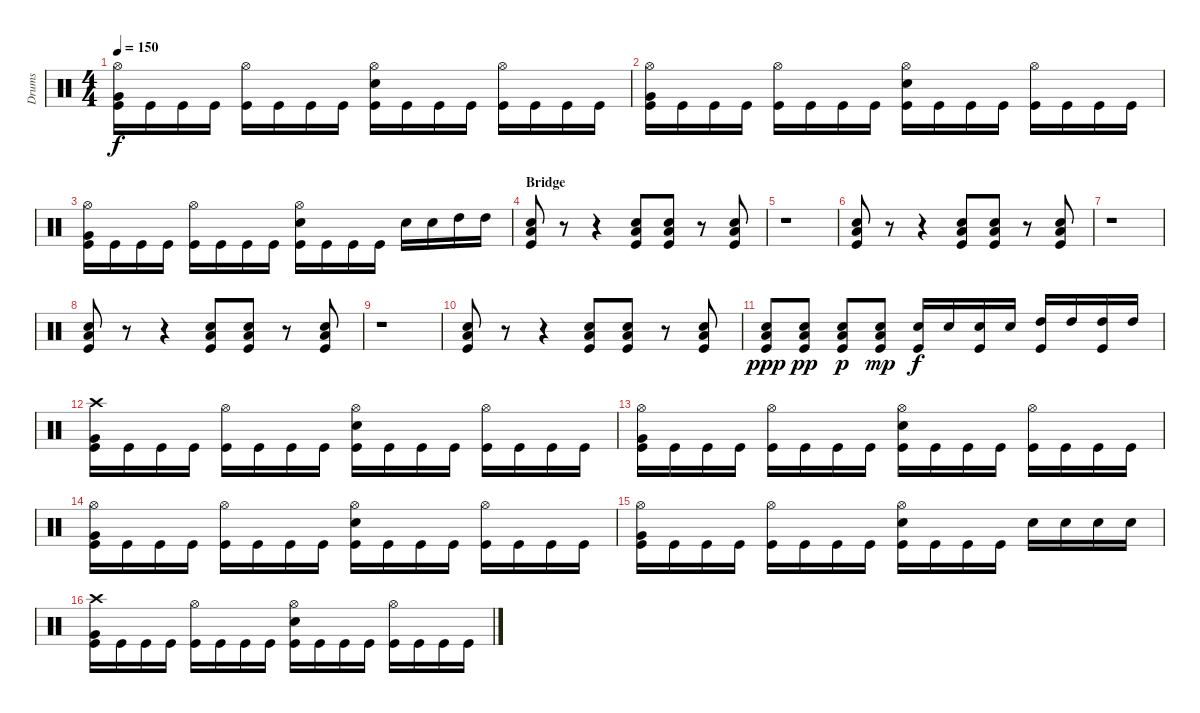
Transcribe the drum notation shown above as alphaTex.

\track ("Drums" "Drums") {instrument percussion}
\staff {score}
\articulation defaults
\ts (4 4)
\tempo 150
\clef neutral
\ks c
("Hi-Hat (open)" "Very Low Tom (hit)" "Kick (hit)").16{dy f} "Kick (hit)".16 "Kick (hit)".16 "Kick (hit)".16 ("Hi-Hat (open)" "Kick (hit)").16 "Kick (hit)".16 "Kick (hit)".16 "Kick (hit)".16 ("Hi-Hat (open)" "Electric Snare (hit)" "Kick (hit)").16 "Kick (hit)".16 "Kick (hit)".16 "Kick (hit)".16 ("Hi-Hat (open)" "Kick (hit)").16 "Kick (hit)".16 "Kick (hit)".16 "Kick (hit)".16 |
("Hi-Hat (open)" "Very Low Tom (hit)" "Kick (hit)").16 "Kick (hit)".16 "Kick (hit)".16 "Kick (hit)".16 ("Hi-Hat (open)" "Kick (hit)").16 "Kick (hit)".16 "Kick (hit)".16 "Kick (hit)".16 ("Hi-Hat (open)" "Electric Snare (hit)" "Kick (hit)").16 "Kick (hit)".16 "Kick (hit)".16 "Kick (hit)".16 ("Hi-Hat (open)" "Kick (hit)").16 "Kick (hit)".16 "Kick (hit)".16 "Kick (hit)".16 |
("Hi-Hat (open)" "Very Low Tom (hit)" "Kick (hit)").16 "Kick (hit)".16 "Kick (hit)".16 "Kick (hit)".16 ("Hi-Hat (open)" "Kick (hit)").16 "Kick (hit)".16 "Kick (hit)".16 "Kick (hit)".16 ("Hi-Hat (open)" "Electric Snare (hit)" "Kick (hit)").16 "Kick (hit)".16 "Kick (hit)".16 "Kick (hit)".16 "Electric Snare (hit)".16 "Electric Snare (hit)".16 "High Tom (hit)".16 "High Tom (hit)".16 |
\section ("" "Bridge")
("Electric Snare (hit)" "Low Floor Tom (hit)" "Kick (hit)").8 r.8 r.4 ("Electric Snare (hit)" "Low Floor Tom (hit)" "Kick (hit)").8 ("Electric Snare (hit)" "Low Floor Tom (hit)" "Kick (hit)").8 r.8 ("Electric Snare (hit)" "Low Floor Tom (hit)" "Kick (hit)").8 |
r.1 |
("Electric Snare (hit)" "Low Floor Tom (hit)" "Kick (hit)").8 r.8 r.4 ("Electric Snare (hit)" "Low Floor Tom (hit)" "Kick (hit)").8 ("Electric Snare (hit)" "Low Floor Tom (hit)" "Kick (hit)").8 r.8 ("Electric Snare (hit)" "Low Floor Tom (hit)" "Kick (hit)").8 |
r.1 |
("Electric Snare (hit)" "Low Floor Tom (hit)" "Kick (hit)").8 r.8 r.4 ("Electric Snare (hit)" "Low Floor Tom (hit)" "Kick (hit)").8 ("Electric Snare (hit)" "Low Floor Tom (hit)" "Kick (hit)").8 r.8 ("Electric Snare (hit)" "Low Floor Tom (hit)" "Kick (hit)").8 |
r.1 |
("Electric Snare (hit)" "Low Floor Tom (hit)" "Kick (hit)").8 r.8 r.4 ("Electric Snare (hit)" "Low Floor Tom (hit)" "Kick (hit)").8 ("Electric Snare (hit)" "Low Floor Tom (hit)" "Kick (hit)").8 r.8 ("Electric Snare (hit)" "Low Floor Tom (hit)" "Kick (hit)").8 |
("Electric Snare (hit)" "Low Floor Tom (hit)" "Kick (hit)").8{dy ppp} ("Electric Snare (hit)" "Low Floor Tom (hit)" "Kick (hit)").8{dy pp} ("Electric Snare (hit)" "Low Floor Tom (hit)" "Kick (hit)").8{dy p} ("Electric Snare (hit)" "Low Floor Tom (hit)" "Kick (hit)").8{dy mp} ("Electric Snare (hit)" "Kick (hit)").16{dy f} "Electric Snare (hit)".16 ("Electric Snare (hit)" "Kick (hit)").16 "Electric Snare (hit)".16 ("High Tom (hit)" "Kick (hit)").16 "High Tom (hit)".16 ("High Tom (hit)" "Kick (hit)").16 "High Tom (hit)".16 |
("Crash high (hit)" "Very Low Tom (hit)" "Kick (hit)").16 "Kick (hit)".16 "Kick (hit)".16 "Kick (hit)".16 ("Hi-Hat (open)" "Kick (hit)").16 "Kick (hit)".16 "Kick (hit)".16 "Kick (hit)".16 ("Hi-Hat (open)" "Electric Snare (hit)" "Kick (hit)").16 "Kick (hit)".16 "Kick (hit)".16 "Kick (hit)".16 ("Hi-Hat (open)" "Kick (hit)").16 "Kick (hit)".16 "Kick (hit)".16 "Kick (hit)".16 |
("Hi-Hat (open)" "Very Low Tom (hit)" "Kick (hit)").16 "Kick (hit)".16 "Kick (hit)".16 "Kick (hit)".16 ("Hi-Hat (open)" "Kick (hit)").16 "Kick (hit)".16 "Kick (hit)".16 "Kick (hit)".16 ("Hi-Hat (open)" "Electric Snare (hit)" "Kick (hit)").16 "Kick (hit)".16 "Kick (hit)".16 "Kick (hit)".16 ("Hi-Hat (open)" "Kick (hit)").16 "Kick (hit)".16 "Kick (hit)".16 "Kick (hit)".16 |
("Hi-Hat (open)" "Very Low Tom (hit)" "Kick (hit)").16 "Kick (hit)".16 "Kick (hit)".16 "Kick (hit)".16 ("Hi-Hat (open)" "Kick (hit)").16 "Kick (hit)".16 "Kick (hit)".16 "Kick (hit)".16 ("Hi-Hat (open)" "Electric Snare (hit)" "Kick (hit)").16 "Kick (hit)".16 "Kick (hit)".16 "Kick (hit)".16 ("Hi-Hat (open)" "Kick (hit)").16 "Kick (hit)".16 "Kick (hit)".16 "Kick (hit)".16 |
("Hi-Hat (open)" "Very Low Tom (hit)" "Kick (hit)").16 "Kick (hit)".16 "Kick (hit)".16 "Kick (hit)".16 ("Hi-Hat (open)" "Kick (hit)").16 "Kick (hit)".16 "Kick (hit)".16 "Kick (hit)".16 ("Hi-Hat (open)" "Electric Snare (hit)" "Kick (hit)").16 "Kick (hit)".16 "Kick (hit)".16 "Kick (hit)".16 "Electric Snare (hit)".16 "Electric Snare (hit)".16 "Electric Snare (hit)".16 "Electric Snare (hit)".16 |
("Crash high (hit)" "Very Low Tom (hit)" "Kick (hit)").16 "Kick (hit)".16 "Kick (hit)".16 "Kick (hit)".16 ("Hi-Hat (open)" "Kick (hit)").16 "Kick (hit)".16 "Kick (hit)".16 "Kick (hit)".16 ("Hi-Hat (open)" "Electric Snare (hit)" "Kick (hit)").16 "Kick (hit)".16 "Kick (hit)".16 "Kick (hit)".16 ("Hi-Hat (open)" "Kick (hit)").16 "Kick (hit)".16 "Kick (hit)".16 "Kick (hit)".16
